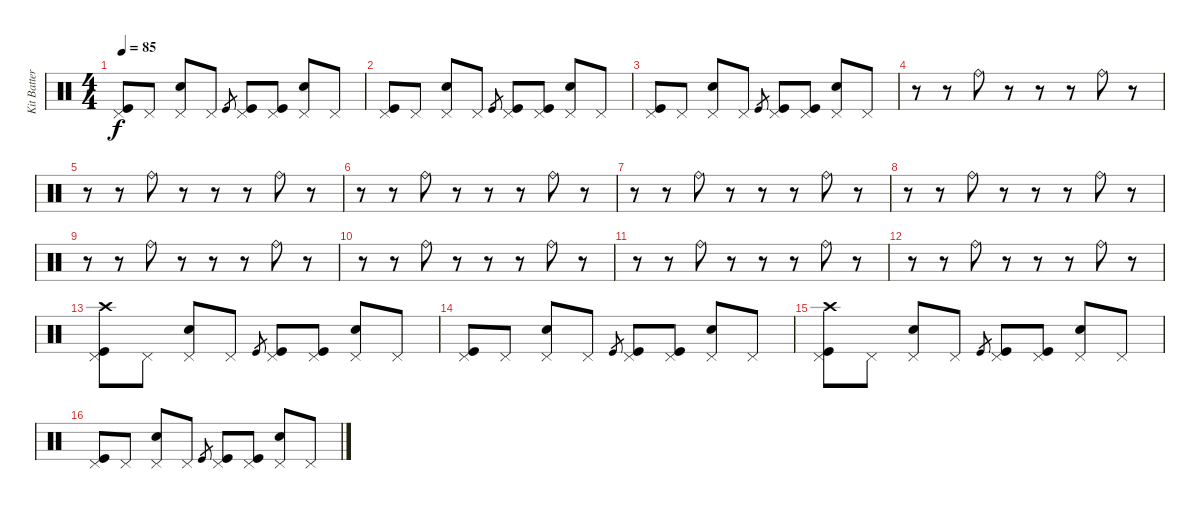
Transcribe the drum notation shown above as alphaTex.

\track ("Kit Batterie 1" "Kit Batter") {instrument percussion}
\staff {score}
\articulation defaults
\ts (4 4)
\tempo 85
\clef neutral
\ks c
("Pedal Hi-Hat (hit)" "Kick (hit)").8{dy f} "Pedal Hi-Hat (hit)".8 ("Pedal Hi-Hat (hit)" "Electric Snare (hit)").8 "Pedal Hi-Hat (hit)".8 "Kick (hit)".8{gr} ("Pedal Hi-Hat (hit)" "Kick (hit)").8 ("Pedal Hi-Hat (hit)" "Kick (hit)").8 ("Pedal Hi-Hat (hit)" "Electric Snare (hit)").8 "Pedal Hi-Hat (hit)".8 |
("Pedal Hi-Hat (hit)" "Kick (hit)").8 "Pedal Hi-Hat (hit)".8 ("Pedal Hi-Hat (hit)" "Electric Snare (hit)").8 "Pedal Hi-Hat (hit)".8 "Kick (hit)".8{gr} ("Pedal Hi-Hat (hit)" "Kick (hit)").8 ("Pedal Hi-Hat (hit)" "Kick (hit)").8 ("Pedal Hi-Hat (hit)" "Electric Snare (hit)").8 "Pedal Hi-Hat (hit)".8 |
("Pedal Hi-Hat (hit)" "Kick (hit)").8 "Pedal Hi-Hat (hit)".8 ("Pedal Hi-Hat (hit)" "Electric Snare (hit)").8 "Pedal Hi-Hat (hit)".8 "Kick (hit)".8{gr} ("Pedal Hi-Hat (hit)" "Kick (hit)").8 ("Pedal Hi-Hat (hit)" "Kick (hit)").8 ("Pedal Hi-Hat (hit)" "Electric Snare (hit)").8 "Pedal Hi-Hat (hit)".8 |
r.8 r.8 "Ride (bell)".8 r.8 r.8 r.8 "Ride (bell)".8 r.8 |
r.8 r.8 "Ride (bell)".8 r.8 r.8 r.8 "Ride (bell)".8 r.8 |
r.8 r.8 "Ride (bell)".8 r.8 r.8 r.8 "Ride (bell)".8 r.8 |
r.8 r.8 "Ride (bell)".8 r.8 r.8 r.8 "Ride (bell)".8 r.8 |
r.8 r.8 "Ride (bell)".8 r.8 r.8 r.8 "Ride (bell)".8 r.8 |
r.8 r.8 "Ride (bell)".8 r.8 r.8 r.8 "Ride (bell)".8 r.8 |
r.8 r.8 "Ride (bell)".8 r.8 r.8 r.8 "Ride (bell)".8 r.8 |
r.8 r.8 "Ride (bell)".8 r.8 r.8 r.8 "Ride (bell)".8 r.8 |
r.8 r.8 "Ride (bell)".8 r.8 r.8 r.8 "Ride (bell)".8 r.8 |
("Pedal Hi-Hat (hit)" "Crash high (hit)" "Kick (hit)").8 "Pedal Hi-Hat (hit)".8 ("Pedal Hi-Hat (hit)" "Electric Snare (hit)").8 "Pedal Hi-Hat (hit)".8 "Kick (hit)".8{gr} ("Pedal Hi-Hat (hit)" "Kick (hit)").8 ("Pedal Hi-Hat (hit)" "Kick (hit)").8 ("Pedal Hi-Hat (hit)" "Electric Snare (hit)").8 "Pedal Hi-Hat (hit)".8 |
("Pedal Hi-Hat (hit)" "Kick (hit)").8 "Pedal Hi-Hat (hit)".8 ("Pedal Hi-Hat (hit)" "Electric Snare (hit)").8 "Pedal Hi-Hat (hit)".8 "Kick (hit)".8{gr} ("Pedal Hi-Hat (hit)" "Kick (hit)").8 ("Pedal Hi-Hat (hit)" "Kick (hit)").8 ("Pedal Hi-Hat (hit)" "Electric Snare (hit)").8 "Pedal Hi-Hat (hit)".8 |
("Pedal Hi-Hat (hit)" "Crash high (hit)" "Kick (hit)").8 "Pedal Hi-Hat (hit)".8 ("Pedal Hi-Hat (hit)" "Electric Snare (hit)").8 "Pedal Hi-Hat (hit)".8 "Kick (hit)".8{gr} ("Pedal Hi-Hat (hit)" "Kick (hit)").8 ("Pedal Hi-Hat (hit)" "Kick (hit)").8 ("Pedal Hi-Hat (hit)" "Electric Snare (hit)").8 "Pedal Hi-Hat (hit)".8 |
("Pedal Hi-Hat (hit)" "Kick (hit)").8 "Pedal Hi-Hat (hit)".8 ("Pedal Hi-Hat (hit)" "Electric Snare (hit)").8 "Pedal Hi-Hat (hit)".8 "Kick (hit)".8{gr} ("Pedal Hi-Hat (hit)" "Kick (hit)").8 ("Pedal Hi-Hat (hit)" "Kick (hit)").8 ("Pedal Hi-Hat (hit)" "Electric Snare (hit)").8 "Pedal Hi-Hat (hit)".8
